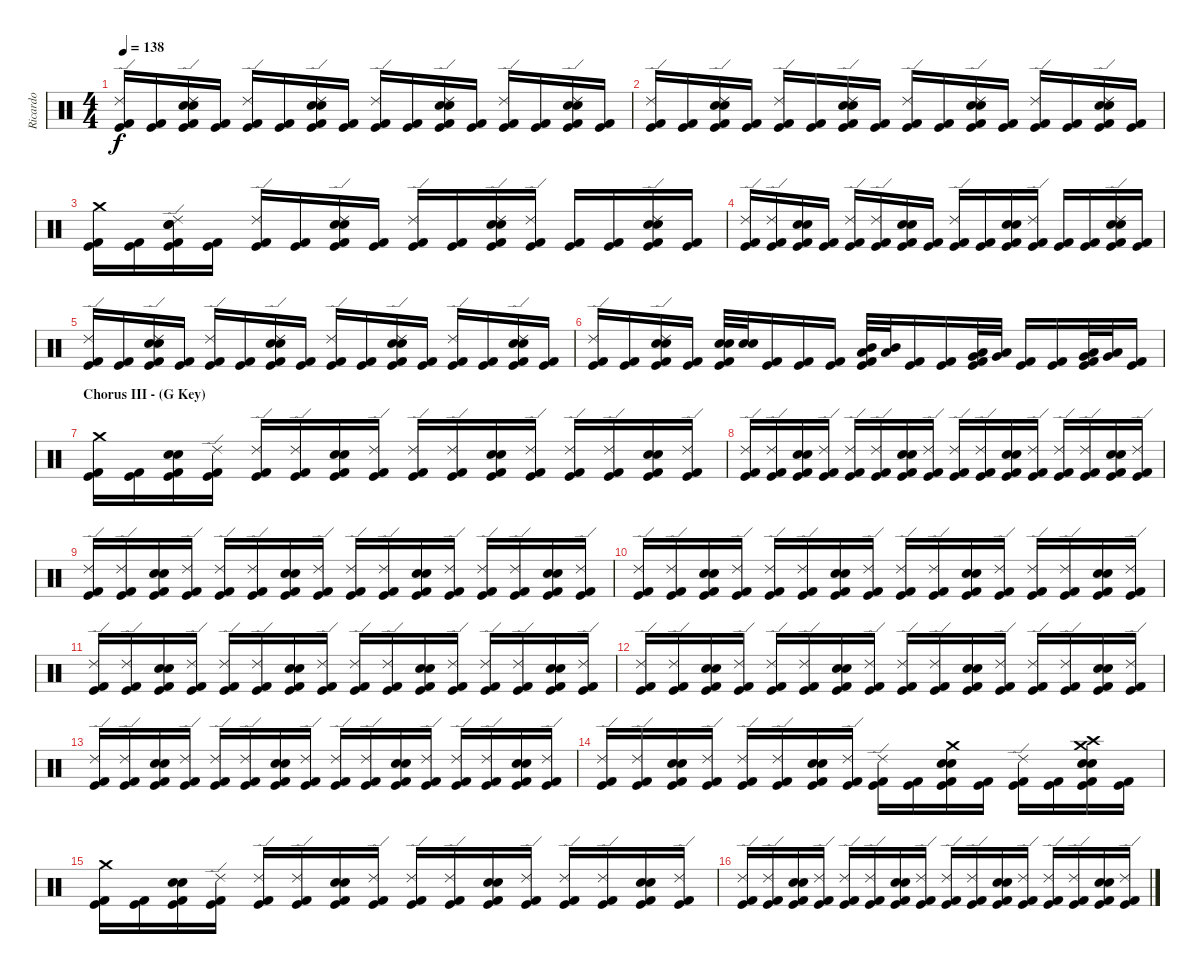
\track ("Ricardo" "Ricardo") {instrument percussion}
\staff {score}
\articulation defaults
\ts (4 4)
\tempo 138
\clef neutral
\ks c
("Ride (edge) 2" "Kick (hit) 2" "Kick (hit)").16{dy f} ("Kick (hit) 2" "Kick (hit)").16 ("Electric Snare (hit)" "Snare (hit) 2" "Ride (edge) 2" "Kick (hit) 2" "Kick (hit)").16 ("Kick (hit) 2" "Kick (hit)").16 ("Ride (edge) 2" "Kick (hit) 2" "Kick (hit)").16 ("Kick (hit) 2" "Kick (hit)").16 ("Electric Snare (hit)" "Snare (hit) 2" "Ride (edge) 2" "Kick (hit) 2" "Kick (hit)").16 ("Kick (hit) 2" "Kick (hit)").16 ("Ride (edge) 2" "Kick (hit) 2" "Kick (hit)").16 ("Kick (hit) 2" "Kick (hit)").16 ("Electric Snare (hit)" "Snare (hit) 2" "Ride (edge) 2" "Kick (hit) 2" "Kick (hit)").16 ("Kick (hit) 2" "Kick (hit)").16 ("Ride (edge) 2" "Kick (hit) 2" "Kick (hit)").16 ("Kick (hit) 2" "Kick (hit)").16 ("Electric Snare (hit)" "Snare (hit) 2" "Ride (edge) 2" "Kick (hit) 2" "Kick (hit)").16 ("Kick (hit) 2" "Kick (hit)").16 |
("Ride (edge) 2" "Kick (hit) 2" "Kick (hit)").16 ("Kick (hit) 2" "Kick (hit)").16 ("Electric Snare (hit)" "Snare (hit) 2" "Ride (edge) 2" "Kick (hit) 2" "Kick (hit)").16 ("Kick (hit) 2" "Kick (hit)").16 ("Ride (edge) 2" "Kick (hit) 2" "Kick (hit)").16 ("Kick (hit) 2" "Kick (hit)").16 ("Electric Snare (hit)" "Snare (hit) 2" "Ride (edge) 2" "Kick (hit) 2" "Kick (hit)").16 ("Kick (hit) 2" "Kick (hit)").16 ("Ride (edge) 2" "Kick (hit) 2" "Kick (hit)").16 ("Kick (hit) 2" "Kick (hit)").16 ("Electric Snare (hit)" "Snare (hit) 2" "Ride (edge) 2" "Kick (hit) 2" "Kick (hit)").16 ("Kick (hit) 2" "Kick (hit)").16 ("Ride (edge) 2" "Kick (hit) 2" "Kick (hit)").16 ("Kick (hit) 2" "Kick (hit)").16 ("Electric Snare (hit)" "Snare (hit) 2" "Ride (edge) 2" "Kick (hit) 2" "Kick (hit)").16 ("Kick (hit) 2" "Kick (hit)").16 |
("Crash medium (hit)" "Kick (hit) 2" "Kick (hit)").16 ("Kick (hit) 2" "Kick (hit)").16 ("Electric Snare (hit)" "Snare (hit) 2" "Ride (edge) 2" "Kick (hit) 2" "Kick (hit)").16 ("Kick (hit) 2" "Kick (hit)").16 ("Ride (edge) 2" "Kick (hit) 2" "Kick (hit)").16 ("Kick (hit) 2" "Kick (hit)").16 ("Electric Snare (hit)" "Snare (hit) 2" "Ride (edge) 2" "Kick (hit) 2" "Kick (hit)").16 ("Kick (hit) 2" "Kick (hit)").16 ("Ride (edge) 2" "Kick (hit) 2" "Kick (hit)").16 ("Kick (hit) 2" "Kick (hit)").16 ("Electric Snare (hit)" "Snare (hit) 2" "Ride (edge) 2" "Kick (hit) 2" "Kick (hit)").16 ("Ride (edge) 2" "Kick (hit) 2" "Kick (hit)").16 ("Kick (hit) 2" "Kick (hit)").16 ("Kick (hit) 2" "Kick (hit)").16 ("Electric Snare (hit)" "Snare (hit) 2" "Ride (edge) 2" "Kick (hit) 2" "Kick (hit)").16 ("Kick (hit) 2" "Kick (hit)").16 |
("Ride (edge) 2" "Kick (hit) 2" "Kick (hit)").16 ("Ride (edge) 2" "Kick (hit) 2" "Kick (hit)").16 ("Electric Snare (hit)" "Snare (hit) 2" "Kick (hit) 2" "Kick (hit)").16 ("Kick (hit) 2" "Kick (hit)").16 ("Ride (edge) 2" "Kick (hit) 2" "Kick (hit)").16 ("Ride (edge) 2" "Kick (hit) 2" "Kick (hit)").16 ("Electric Snare (hit)" "Snare (hit) 2" "Kick (hit) 2" "Kick (hit)").16 ("Kick (hit) 2" "Kick (hit)").16 ("Ride (edge) 2" "Kick (hit) 2" "Kick (hit)").16 ("Kick (hit) 2" "Kick (hit)").16 ("Electric Snare (hit)" "Snare (hit) 2" "Kick (hit) 2" "Kick (hit)").16 ("Ride (edge) 2" "Kick (hit) 2" "Kick (hit)").16 ("Kick (hit) 2" "Kick (hit)").16 ("Kick (hit) 2" "Kick (hit)").16 ("Electric Snare (hit)" "Snare (hit) 2" "Ride (edge) 2" "Kick (hit) 2" "Kick (hit)").16 ("Kick (hit) 2" "Kick (hit)").16 |
("Ride (edge) 2" "Kick (hit) 2" "Kick (hit)").16 ("Kick (hit) 2" "Kick (hit)").16 ("Electric Snare (hit)" "Snare (hit) 2" "Ride (edge) 2" "Kick (hit) 2" "Kick (hit)").16 ("Kick (hit) 2" "Kick (hit)").16 ("Ride (edge) 2" "Kick (hit) 2" "Kick (hit)").16 ("Kick (hit) 2" "Kick (hit)").16 ("Electric Snare (hit)" "Snare (hit) 2" "Ride (edge) 2" "Kick (hit) 2" "Kick (hit)").16 ("Kick (hit) 2" "Kick (hit)").16 ("Ride (edge) 2" "Kick (hit) 2" "Kick (hit)").16 ("Kick (hit) 2" "Kick (hit)").16 ("Electric Snare (hit)" "Snare (hit) 2" "Ride (edge) 2" "Kick (hit) 2" "Kick (hit)").16 ("Kick (hit) 2" "Kick (hit)").16 ("Ride (edge) 2" "Kick (hit) 2" "Kick (hit)").16 ("Kick (hit) 2" "Kick (hit)").16 ("Electric Snare (hit)" "Snare (hit) 2" "Ride (edge) 2" "Kick (hit) 2" "Kick (hit)").16 ("Kick (hit) 2" "Kick (hit)").16 |
("Ride (edge) 2" "Kick (hit) 2" "Kick (hit)").16 ("Kick (hit) 2" "Kick (hit)").16 ("Electric Snare (hit)" "Snare (hit) 2" "Ride (edge) 2" "Kick (hit) 2" "Kick (hit)").16 ("Kick (hit) 2" "Kick (hit)").16 ("Electric Snare (hit)" "Snare (hit) 2" "Kick (hit) 2" "Kick (hit)").32 ("Snare (hit) 2" "Electric Snare (hit)").32 ("Kick (hit) 2" "Kick (hit)").16 ("Kick (hit) 2" "Kick (hit)").16 ("Kick (hit) 2" "Kick (hit)").16 ("Low Tom (hit)" "Mid Tom (hit)" "Kick (hit) 2" "Kick (hit)").32 ("Mid Tom (hit)" "Low Tom (hit)").32 ("Kick (hit) 2" "Kick (hit)").16 ("Kick (hit) 2" "Kick (hit)").16 ("Very Low Tom (hit)" "Low Tom (hit)" "Kick (hit) 2" "Kick (hit)").32 ("Low Tom (hit)" "Very Low Tom (hit)").32 ("Kick (hit) 2" "Kick (hit)").16 ("Kick (hit) 2" "Kick (hit)").16 ("Low Floor Tom (hit)" "Very Low Tom (hit)" "Kick (hit) 2" "Kick (hit)").32 ("Very Low Tom (hit)" "Low Floor Tom (hit)").32 ("Kick (hit) 2" "Kick (hit)").16 |
\section ("" "Chorus III - (G Key)")
("Crash medium (hit)" "Kick (hit) 2" "Kick (hit)").16 ("Kick (hit) 2" "Kick (hit)").16 ("Electric Snare (hit)" "Snare (hit) 2" "Kick (hit) 2" "Kick (hit)").16 ("Ride (edge) 2" "Kick (hit) 2" "Kick (hit)").16 ("Ride (edge) 2" "Kick (hit) 2" "Kick (hit)").16 ("Ride (edge) 2" "Kick (hit) 2" "Kick (hit)").16 ("Snare (hit) 2" "Electric Snare (hit)" "Kick (hit) 2" "Kick (hit)").16 ("Ride (edge) 2" "Kick (hit) 2" "Kick (hit)").16 ("Ride (edge) 2" "Kick (hit) 2" "Kick (hit)").16 ("Ride (edge) 2" "Kick (hit) 2" "Kick (hit)").16 ("Electric Snare (hit)" "Snare (hit) 2" "Kick (hit) 2" "Kick (hit)").16 ("Ride (edge) 2" "Kick (hit) 2" "Kick (hit)").16 ("Ride (edge) 2" "Kick (hit) 2" "Kick (hit)").16 ("Ride (edge) 2" "Kick (hit) 2" "Kick (hit)").16 ("Electric Snare (hit)" "Snare (hit) 2" "Kick (hit) 2" "Kick (hit)").16 ("Ride (edge) 2" "Kick (hit) 2" "Kick (hit)").16 |
("Ride (edge) 2" "Kick (hit) 2" "Kick (hit)").16 ("Ride (edge) 2" "Kick (hit) 2" "Kick (hit)").16 ("Electric Snare (hit)" "Snare (hit) 2" "Kick (hit) 2" "Kick (hit)").16 ("Ride (edge) 2" "Kick (hit) 2" "Kick (hit)").16 ("Ride (edge) 2" "Kick (hit) 2" "Kick (hit)").16 ("Ride (edge) 2" "Kick (hit) 2" "Kick (hit)").16 ("Electric Snare (hit)" "Snare (hit) 2" "Kick (hit) 2" "Kick (hit)").16 ("Ride (edge) 2" "Kick (hit) 2" "Kick (hit)").16 ("Ride (edge) 2" "Kick (hit) 2" "Kick (hit)").16 ("Ride (edge) 2" "Kick (hit) 2" "Kick (hit)").16 ("Electric Snare (hit)" "Snare (hit) 2" "Kick (hit) 2" "Kick (hit)").16 ("Ride (edge) 2" "Kick (hit) 2" "Kick (hit)").16 ("Ride (edge) 2" "Kick (hit) 2" "Kick (hit)").16 ("Ride (edge) 2" "Kick (hit) 2" "Kick (hit)").16 ("Electric Snare (hit)" "Snare (hit) 2" "Kick (hit) 2" "Kick (hit)").16 ("Ride (edge) 2" "Kick (hit) 2" "Kick (hit)").16 |
("Ride (edge) 2" "Kick (hit) 2" "Kick (hit)").16 ("Ride (edge) 2" "Kick (hit) 2" "Kick (hit)").16 ("Electric Snare (hit)" "Snare (hit) 2" "Kick (hit) 2" "Kick (hit)").16 ("Ride (edge) 2" "Kick (hit) 2" "Kick (hit)").16 ("Ride (edge) 2" "Kick (hit) 2" "Kick (hit)").16 ("Ride (edge) 2" "Kick (hit) 2" "Kick (hit)").16 ("Electric Snare (hit)" "Snare (hit) 2" "Kick (hit) 2" "Kick (hit)").16 ("Ride (edge) 2" "Kick (hit) 2" "Kick (hit)").16 ("Ride (edge) 2" "Kick (hit) 2" "Kick (hit)").16 ("Ride (edge) 2" "Kick (hit) 2" "Kick (hit)").16 ("Electric Snare (hit)" "Snare (hit) 2" "Kick (hit) 2" "Kick (hit)").16 ("Ride (edge) 2" "Kick (hit) 2" "Kick (hit)").16 ("Ride (edge) 2" "Kick (hit) 2" "Kick (hit)").16 ("Ride (edge) 2" "Kick (hit) 2" "Kick (hit)").16 ("Electric Snare (hit)" "Snare (hit) 2" "Kick (hit) 2" "Kick (hit)").16 ("Ride (edge) 2" "Kick (hit) 2" "Kick (hit)").16 |
("Ride (edge) 2" "Kick (hit) 2" "Kick (hit)").16 ("Ride (edge) 2" "Kick (hit) 2" "Kick (hit)").16 ("Electric Snare (hit)" "Snare (hit) 2" "Kick (hit) 2" "Kick (hit)").16 ("Ride (edge) 2" "Kick (hit) 2" "Kick (hit)").16 ("Ride (edge) 2" "Kick (hit) 2" "Kick (hit)").16 ("Ride (edge) 2" "Kick (hit) 2" "Kick (hit)").16 ("Electric Snare (hit)" "Snare (hit) 2" "Kick (hit) 2" "Kick (hit)").16 ("Ride (edge) 2" "Kick (hit) 2" "Kick (hit)").16 ("Ride (edge) 2" "Kick (hit) 2" "Kick (hit)").16 ("Ride (edge) 2" "Kick (hit) 2" "Kick (hit)").16 ("Electric Snare (hit)" "Snare (hit) 2" "Kick (hit) 2" "Kick (hit)").16 ("Ride (edge) 2" "Kick (hit) 2" "Kick (hit)").16 ("Ride (edge) 2" "Kick (hit) 2" "Kick (hit)").16 ("Ride (edge) 2" "Kick (hit) 2" "Kick (hit)").16 ("Electric Snare (hit)" "Snare (hit) 2" "Kick (hit) 2" "Kick (hit)").16 ("Ride (edge) 2" "Kick (hit) 2" "Kick (hit)").16 |
("Ride (edge) 2" "Kick (hit) 2" "Kick (hit)").16 ("Ride (edge) 2" "Kick (hit) 2" "Kick (hit)").16 ("Electric Snare (hit)" "Snare (hit) 2" "Kick (hit) 2" "Kick (hit)").16 ("Ride (edge) 2" "Kick (hit) 2" "Kick (hit)").16 ("Ride (edge) 2" "Kick (hit) 2" "Kick (hit)").16 ("Ride (edge) 2" "Kick (hit) 2" "Kick (hit)").16 ("Electric Snare (hit)" "Snare (hit) 2" "Kick (hit) 2" "Kick (hit)").16 ("Ride (edge) 2" "Kick (hit) 2" "Kick (hit)").16 ("Ride (edge) 2" "Kick (hit) 2" "Kick (hit)").16 ("Ride (edge) 2" "Kick (hit) 2" "Kick (hit)").16 ("Electric Snare (hit)" "Snare (hit) 2" "Kick (hit) 2" "Kick (hit)").16 ("Ride (edge) 2" "Kick (hit) 2" "Kick (hit)").16 ("Ride (edge) 2" "Kick (hit) 2" "Kick (hit)").16 ("Ride (edge) 2" "Kick (hit) 2" "Kick (hit)").16 ("Electric Snare (hit)" "Snare (hit) 2" "Kick (hit) 2" "Kick (hit)").16 ("Ride (edge) 2" "Kick (hit) 2" "Kick (hit)").16 |
("Ride (edge) 2" "Kick (hit) 2" "Kick (hit)").16 ("Ride (edge) 2" "Kick (hit) 2" "Kick (hit)").16 ("Electric Snare (hit)" "Snare (hit) 2" "Kick (hit) 2" "Kick (hit)").16 ("Ride (edge) 2" "Kick (hit) 2" "Kick (hit)").16 ("Ride (edge) 2" "Kick (hit) 2" "Kick (hit)").16 ("Ride (edge) 2" "Kick (hit) 2" "Kick (hit)").16 ("Electric Snare (hit)" "Snare (hit) 2" "Kick (hit) 2" "Kick (hit)").16 ("Ride (edge) 2" "Kick (hit) 2" "Kick (hit)").16 ("Ride (edge) 2" "Kick (hit) 2" "Kick (hit)").16 ("Ride (edge) 2" "Kick (hit) 2" "Kick (hit)").16 ("Electric Snare (hit)" "Snare (hit) 2" "Kick (hit) 2" "Kick (hit)").16 ("Ride (edge) 2" "Kick (hit) 2" "Kick (hit)").16 ("Ride (edge) 2" "Kick (hit) 2" "Kick (hit)").16 ("Ride (edge) 2" "Kick (hit) 2" "Kick (hit)").16 ("Electric Snare (hit)" "Snare (hit) 2" "Kick (hit) 2" "Kick (hit)").16 ("Ride (edge) 2" "Kick (hit) 2" "Kick (hit)").16 |
("Ride (edge) 2" "Kick (hit) 2" "Kick (hit)").16 ("Ride (edge) 2" "Kick (hit) 2" "Kick (hit)").16 ("Electric Snare (hit)" "Snare (hit) 2" "Kick (hit) 2" "Kick (hit)").16 ("Ride (edge) 2" "Kick (hit) 2" "Kick (hit)").16 ("Ride (edge) 2" "Kick (hit) 2" "Kick (hit)").16 ("Ride (edge) 2" "Kick (hit) 2" "Kick (hit)").16 ("Electric Snare (hit)" "Snare (hit) 2" "Kick (hit) 2" "Kick (hit)").16 ("Ride (edge) 2" "Kick (hit) 2" "Kick (hit)").16 ("Ride (edge) 2" "Kick (hit) 2" "Kick (hit)").16 ("Ride (edge) 2" "Kick (hit) 2" "Kick (hit)").16 ("Electric Snare (hit)" "Snare (hit) 2" "Kick (hit) 2" "Kick (hit)").16 ("Ride (edge) 2" "Kick (hit) 2" "Kick (hit)").16 ("Ride (edge) 2" "Kick (hit) 2" "Kick (hit)").16 ("Ride (edge) 2" "Kick (hit) 2" "Kick (hit)").16 ("Electric Snare (hit)" "Snare (hit) 2" "Kick (hit) 2" "Kick (hit)").16 ("Ride (edge) 2" "Kick (hit) 2" "Kick (hit)").16 |
("Ride (edge) 2" "Kick (hit) 2" "Kick (hit)").16 ("Ride (edge) 2" "Kick (hit) 2" "Kick (hit)").16 ("Electric Snare (hit)" "Snare (hit) 2" "Kick (hit) 2" "Kick (hit)").16 ("Ride (edge) 2" "Kick (hit) 2" "Kick (hit)").16 ("Ride (edge) 2" "Kick (hit) 2" "Kick (hit)").16 ("Ride (edge) 2" "Kick (hit) 2" "Kick (hit)").16 ("Electric Snare (hit)" "Snare (hit) 2" "Kick (hit) 2" "Kick (hit)").16 ("Ride (edge) 2" "Kick (hit) 2" "Kick (hit)").16 ("Ride (edge) 2" "Kick (hit) 2" "Kick (hit)").16 ("Kick (hit) 2" "Kick (hit)").16 ("Crash medium (hit)" "Electric Snare (hit)" "Snare (hit) 2" "Kick (hit) 2" "Kick (hit)").16 ("Kick (hit) 2" "Kick (hit)").16 ("Ride (edge) 2" "Kick (hit) 2" "Kick (hit)").16 ("Kick (hit) 2" "Kick (hit)").16 ("Crash medium (hit)" "Crash high (hit)" "Electric Snare (hit)" "Snare (hit) 2" "Kick (hit) 2" "Kick (hit)").16 ("Kick (hit) 2" "Kick (hit)").16 |
("Crash medium (hit)" "Kick (hit) 2" "Kick (hit)").16 ("Kick (hit) 2" "Kick (hit)").16 ("Electric Snare (hit)" "Snare (hit) 2" "Kick (hit) 2" "Kick (hit)").16 ("Ride (edge) 2" "Kick (hit) 2" "Kick (hit)").16 ("Ride (edge) 2" "Kick (hit) 2" "Kick (hit)").16 ("Ride (edge) 2" "Kick (hit) 2" "Kick (hit)").16 ("Electric Snare (hit)" "Snare (hit) 2" "Kick (hit) 2" "Kick (hit)").16 ("Ride (edge) 2" "Kick (hit) 2" "Kick (hit)").16 ("Ride (edge) 2" "Kick (hit) 2" "Kick (hit)").16 ("Ride (edge) 2" "Kick (hit) 2" "Kick (hit)").16 ("Electric Snare (hit)" "Snare (hit) 2" "Kick (hit) 2" "Kick (hit)").16 ("Ride (edge) 2" "Kick (hit) 2" "Kick (hit)").16 ("Ride (edge) 2" "Kick (hit) 2" "Kick (hit)").16 ("Ride (edge) 2" "Kick (hit) 2" "Kick (hit)").16 ("Electric Snare (hit)" "Snare (hit) 2" "Kick (hit) 2" "Kick (hit)").16 ("Ride (edge) 2" "Kick (hit) 2" "Kick (hit)").16 |
("Ride (edge) 2" "Kick (hit) 2" "Kick (hit)").16 ("Ride (edge) 2" "Kick (hit) 2" "Kick (hit)").16 ("Electric Snare (hit)" "Snare (hit) 2" "Kick (hit) 2" "Kick (hit)").16 ("Ride (edge) 2" "Kick (hit) 2" "Kick (hit)").16 ("Ride (edge) 2" "Kick (hit) 2" "Kick (hit)").16 ("Ride (edge) 2" "Kick (hit) 2" "Kick (hit)").16 ("Electric Snare (hit)" "Snare (hit) 2" "Kick (hit) 2" "Kick (hit)").16 ("Ride (edge) 2" "Kick (hit) 2" "Kick (hit)").16 ("Ride (edge) 2" "Kick (hit) 2" "Kick (hit)").16 ("Ride (edge) 2" "Kick (hit) 2" "Kick (hit)").16 ("Electric Snare (hit)" "Snare (hit) 2" "Kick (hit) 2" "Kick (hit)").16 ("Ride (edge) 2" "Kick (hit) 2" "Kick (hit)").16 ("Ride (edge) 2" "Kick (hit) 2" "Kick (hit)").16 ("Ride (edge) 2" "Kick (hit) 2" "Kick (hit)").16 ("Electric Snare (hit)" "Snare (hit) 2" "Kick (hit) 2" "Kick (hit)").16 ("Ride (edge) 2" "Kick (hit) 2" "Kick (hit)").16
